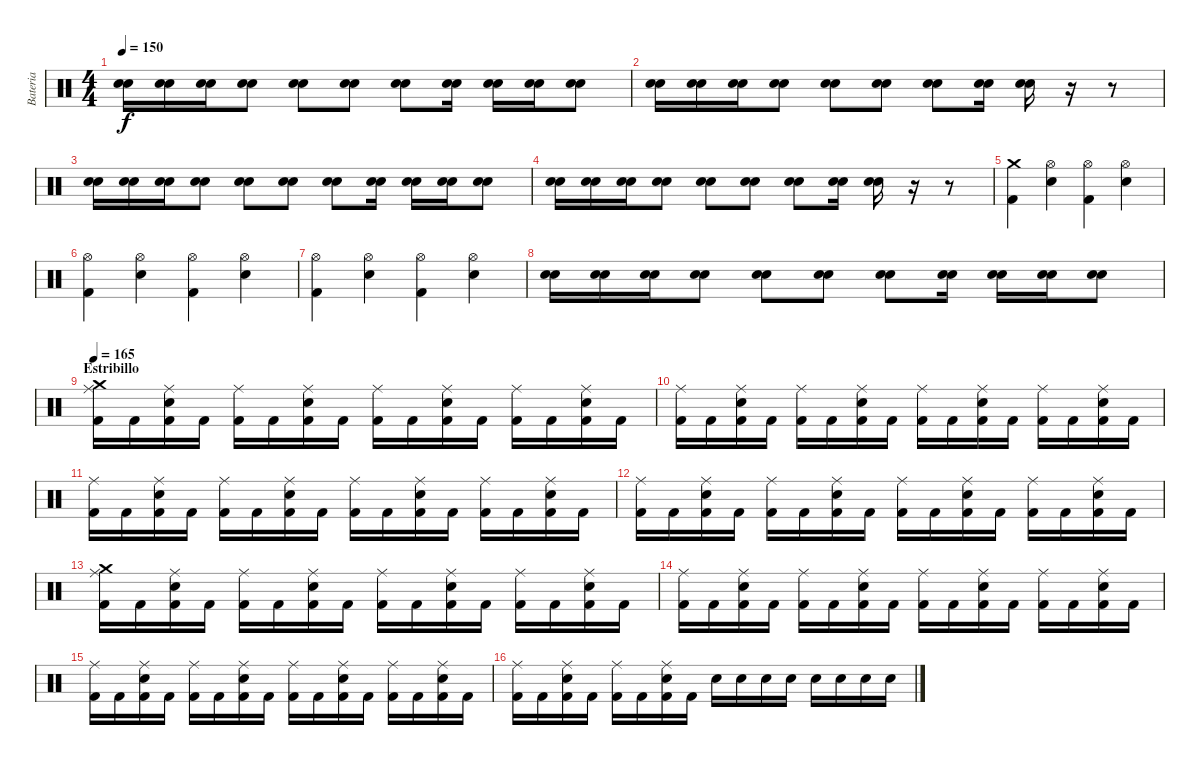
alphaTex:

\track ("Bateria" "Bateria") {instrument percussion}
\staff {score}
\articulation defaults
\ts (4 4)
\tempo 150
\clef neutral
\ks c
("Snare (hit) 2" "Electric Snare (hit)").16{dy f} ("Snare (hit) 2" "Electric Snare (hit)").16 ("Snare (hit) 2" "Electric Snare (hit)").16 ("Snare (hit) 2" "Electric Snare (hit)").8 ("Snare (hit) 2" "Electric Snare (hit)").8 ("Snare (hit) 2" "Electric Snare (hit)").8 ("Snare (hit) 2" "Electric Snare (hit)").8 ("Snare (hit) 2" "Electric Snare (hit)").16 ("Snare (hit) 2" "Electric Snare (hit)").16 ("Snare (hit) 2" "Electric Snare (hit)").16 ("Snare (hit) 2" "Electric Snare (hit)").8 |
("Snare (hit) 2" "Electric Snare (hit)").16 ("Snare (hit) 2" "Electric Snare (hit)").16 ("Snare (hit) 2" "Electric Snare (hit)").16 ("Snare (hit) 2" "Electric Snare (hit)").8 ("Snare (hit) 2" "Electric Snare (hit)").8 ("Snare (hit) 2" "Electric Snare (hit)").8 ("Snare (hit) 2" "Electric Snare (hit)").8 ("Snare (hit) 2" "Electric Snare (hit)").16 ("Snare (hit) 2" "Electric Snare (hit)").16 r.16 r.8 |
("Snare (hit) 2" "Electric Snare (hit)").16 ("Snare (hit) 2" "Electric Snare (hit)").16 ("Snare (hit) 2" "Electric Snare (hit)").16 ("Snare (hit) 2" "Electric Snare (hit)").8 ("Snare (hit) 2" "Electric Snare (hit)").8 ("Snare (hit) 2" "Electric Snare (hit)").8 ("Snare (hit) 2" "Electric Snare (hit)").8 ("Snare (hit) 2" "Electric Snare (hit)").16 ("Snare (hit) 2" "Electric Snare (hit)").16 ("Snare (hit) 2" "Electric Snare (hit)").16 ("Snare (hit) 2" "Electric Snare (hit)").8 |
("Snare (hit) 2" "Electric Snare (hit)").16 ("Snare (hit) 2" "Electric Snare (hit)").16 ("Snare (hit) 2" "Electric Snare (hit)").16 ("Snare (hit) 2" "Electric Snare (hit)").8 ("Snare (hit) 2" "Electric Snare (hit)").8 ("Snare (hit) 2" "Electric Snare (hit)").8 ("Snare (hit) 2" "Electric Snare (hit)").8 ("Snare (hit) 2" "Electric Snare (hit)").16 ("Snare (hit) 2" "Electric Snare (hit)").16 r.16 r.8 |
("Crash medium (hit)" "Kick (hit) 2").4 ("Snare (hit) 2" "Hi-Hat (open)").4 ("Kick (hit) 2" "Hi-Hat (open)").4 ("Snare (hit) 2" "Hi-Hat (open)").4 |
("Hi-Hat (open)" "Kick (hit) 2").4 ("Snare (hit) 2" "Hi-Hat (open)").4 ("Kick (hit) 2" "Hi-Hat (open)").4 ("Snare (hit) 2" "Hi-Hat (open)").4 |
("Hi-Hat (open)" "Kick (hit) 2").4 ("Snare (hit) 2" "Hi-Hat (open)").4 ("Kick (hit) 2" "Hi-Hat (open)").4 ("Snare (hit) 2" "Hi-Hat (open)").4 |
("Snare (hit) 2" "Electric Snare (hit)").16 ("Snare (hit) 2" "Electric Snare (hit)").16 ("Snare (hit) 2" "Electric Snare (hit)").16 ("Snare (hit) 2" "Electric Snare (hit)").8 ("Snare (hit) 2" "Electric Snare (hit)").8 ("Snare (hit) 2" "Electric Snare (hit)").8 ("Snare (hit) 2" "Electric Snare (hit)").8 ("Snare (hit) 2" "Electric Snare (hit)").16 ("Snare (hit) 2" "Electric Snare (hit)").16 ("Snare (hit) 2" "Electric Snare (hit)").16 ("Snare (hit) 2" "Electric Snare (hit)").8 |
\section ("" "Estribillo")
\tempo 165
("Crash medium (hit)" "Ride (middle)" "Kick (hit) 2").16 "Kick (hit) 2".16 ("Snare (hit) 2" "Ride (middle)" "Kick (hit) 2").16 "Kick (hit) 2".16 ("Ride (middle)" "Kick (hit) 2").16 "Kick (hit) 2".16 ("Snare (hit) 2" "Ride (middle)" "Kick (hit) 2").16 "Kick (hit) 2".16 ("Ride (middle)" "Kick (hit) 2").16 "Kick (hit) 2".16 ("Snare (hit) 2" "Ride (middle)" "Kick (hit) 2").16 "Kick (hit) 2".16 ("Ride (middle)" "Kick (hit) 2").16 "Kick (hit) 2".16 ("Snare (hit) 2" "Ride (middle)" "Kick (hit) 2").16 "Kick (hit) 2".16 |
("Ride (middle)" "Kick (hit) 2").16 "Kick (hit) 2".16 ("Snare (hit) 2" "Ride (middle)" "Kick (hit) 2").16 "Kick (hit) 2".16 ("Ride (middle)" "Kick (hit) 2").16 "Kick (hit) 2".16 ("Snare (hit) 2" "Ride (middle)" "Kick (hit) 2").16 "Kick (hit) 2".16 ("Ride (middle)" "Kick (hit) 2").16 "Kick (hit) 2".16 ("Snare (hit) 2" "Ride (middle)" "Kick (hit) 2").16 "Kick (hit) 2".16 ("Ride (middle)" "Kick (hit) 2").16 "Kick (hit) 2".16 ("Snare (hit) 2" "Ride (middle)" "Kick (hit) 2").16 "Kick (hit) 2".16 |
("Ride (middle)" "Kick (hit) 2").16 "Kick (hit) 2".16 ("Snare (hit) 2" "Ride (middle)" "Kick (hit) 2").16 "Kick (hit) 2".16 ("Ride (middle)" "Kick (hit) 2").16 "Kick (hit) 2".16 ("Snare (hit) 2" "Ride (middle)" "Kick (hit) 2").16 "Kick (hit) 2".16 ("Ride (middle)" "Kick (hit) 2").16 "Kick (hit) 2".16 ("Snare (hit) 2" "Ride (middle)" "Kick (hit) 2").16 "Kick (hit) 2".16 ("Ride (middle)" "Kick (hit) 2").16 "Kick (hit) 2".16 ("Snare (hit) 2" "Ride (middle)" "Kick (hit) 2").16 "Kick (hit) 2".16 |
("Ride (middle)" "Kick (hit) 2").16 "Kick (hit) 2".16 ("Snare (hit) 2" "Ride (middle)" "Kick (hit) 2").16 "Kick (hit) 2".16 ("Ride (middle)" "Kick (hit) 2").16 "Kick (hit) 2".16 ("Snare (hit) 2" "Ride (middle)" "Kick (hit) 2").16 "Kick (hit) 2".16 ("Ride (middle)" "Kick (hit) 2").16 "Kick (hit) 2".16 ("Snare (hit) 2" "Ride (middle)" "Kick (hit) 2").16 "Kick (hit) 2".16 ("Ride (middle)" "Kick (hit) 2").16 "Kick (hit) 2".16 ("Snare (hit) 2" "Ride (middle)" "Kick (hit) 2").16 "Kick (hit) 2".16 |
("Crash medium (hit)" "Ride (middle)" "Kick (hit) 2").16 "Kick (hit) 2".16 ("Snare (hit) 2" "Ride (middle)" "Kick (hit) 2").16 "Kick (hit) 2".16 ("Ride (middle)" "Kick (hit) 2").16 "Kick (hit) 2".16 ("Snare (hit) 2" "Ride (middle)" "Kick (hit) 2").16 "Kick (hit) 2".16 ("Ride (middle)" "Kick (hit) 2").16 "Kick (hit) 2".16 ("Snare (hit) 2" "Ride (middle)" "Kick (hit) 2").16 "Kick (hit) 2".16 ("Ride (middle)" "Kick (hit) 2").16 "Kick (hit) 2".16 ("Snare (hit) 2" "Ride (middle)" "Kick (hit) 2").16 "Kick (hit) 2".16 |
("Ride (middle)" "Kick (hit) 2").16 "Kick (hit) 2".16 ("Snare (hit) 2" "Ride (middle)" "Kick (hit) 2").16 "Kick (hit) 2".16 ("Ride (middle)" "Kick (hit) 2").16 "Kick (hit) 2".16 ("Snare (hit) 2" "Ride (middle)" "Kick (hit) 2").16 "Kick (hit) 2".16 ("Ride (middle)" "Kick (hit) 2").16 "Kick (hit) 2".16 ("Snare (hit) 2" "Ride (middle)" "Kick (hit) 2").16 "Kick (hit) 2".16 ("Ride (middle)" "Kick (hit) 2").16 "Kick (hit) 2".16 ("Snare (hit) 2" "Ride (middle)" "Kick (hit) 2").16 "Kick (hit) 2".16 |
("Ride (middle)" "Kick (hit) 2").16 "Kick (hit) 2".16 ("Snare (hit) 2" "Ride (middle)" "Kick (hit) 2").16 "Kick (hit) 2".16 ("Ride (middle)" "Kick (hit) 2").16 "Kick (hit) 2".16 ("Snare (hit) 2" "Ride (middle)" "Kick (hit) 2").16 "Kick (hit) 2".16 ("Ride (middle)" "Kick (hit) 2").16 "Kick (hit) 2".16 ("Snare (hit) 2" "Ride (middle)" "Kick (hit) 2").16 "Kick (hit) 2".16 ("Ride (middle)" "Kick (hit) 2").16 "Kick (hit) 2".16 ("Snare (hit) 2" "Ride (middle)" "Kick (hit) 2").16 "Kick (hit) 2".16 |
("Ride (middle)" "Kick (hit) 2").16 "Kick (hit) 2".16 ("Snare (hit) 2" "Ride (middle)" "Kick (hit) 2").16 "Kick (hit) 2".16 ("Ride (middle)" "Kick (hit) 2").16 "Kick (hit) 2".16 ("Snare (hit) 2" "Ride (middle)" "Kick (hit) 2").16 "Kick (hit) 2".16 "Snare (hit) 2".16 "Snare (hit) 2".16 "Snare (hit) 2".16 "Snare (hit) 2".16 "Snare (hit) 2".16 "Snare (hit) 2".16 "Snare (hit) 2".16 "Snare (hit) 2".16
